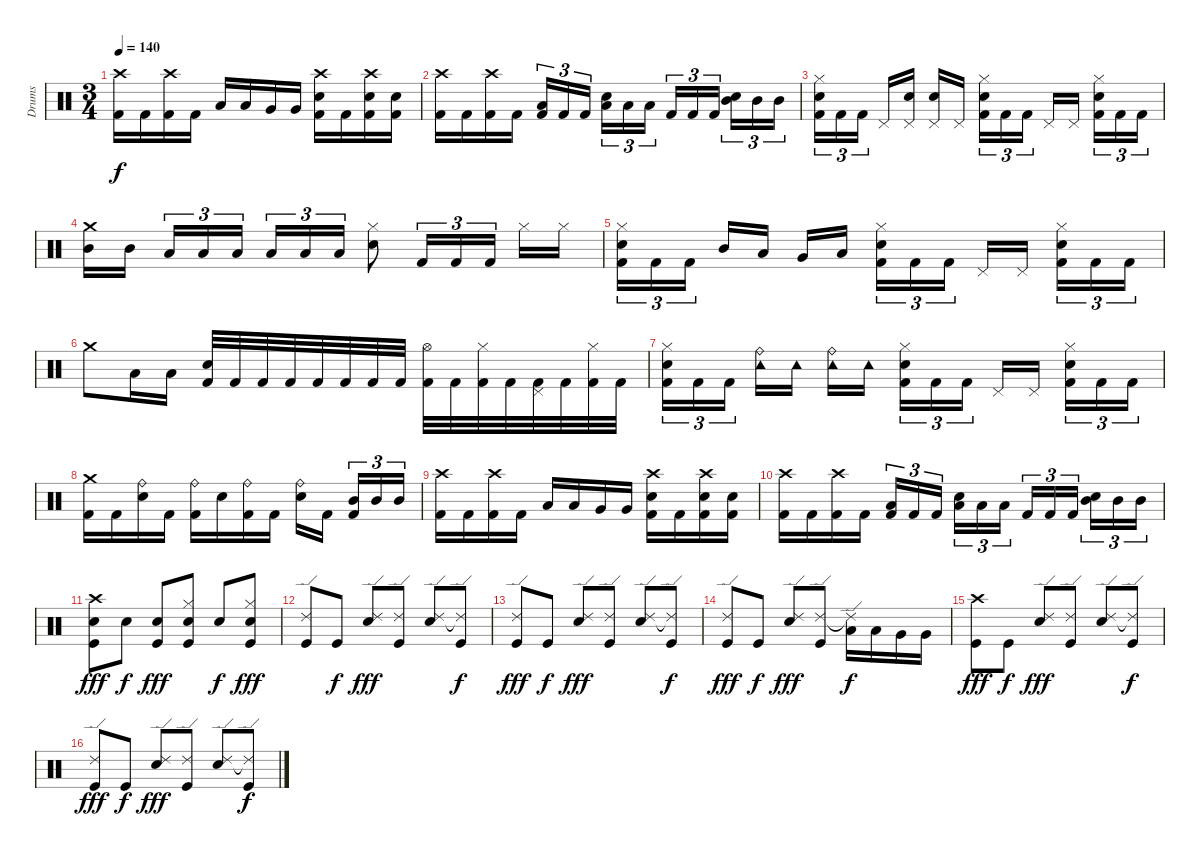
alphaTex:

\track ("Drums" "Drums") {instrument percussion}
\staff {score}
\articulation defaults
\ts (3 4)
\tempo 140
\clef neutral
\ks c
("Crash high (hit)" "Kick (hit) 2").16{dy f} "Kick (hit) 2".16 ("Crash high (hit)" "Kick (hit) 2").16 "Kick (hit) 2".16 "Low Tom (hit)".16 "Low Tom (hit)".16 "Very Low Tom (hit)".16 "Very Low Tom (hit)".16 ("Crash high (hit)" "Snare (hit) 2" "Kick (hit) 2").16 "Kick (hit) 2".16 ("Crash high (hit)" "Snare (hit) 2" "Kick (hit) 2").16 ("Snare (hit) 2" "Kick (hit) 2").16 |
("Crash high (hit)" "Kick (hit) 2").16 "Kick (hit) 2".16 ("Crash high (hit)" "Kick (hit) 2").16 "Kick (hit) 2".16 ("Low Tom (hit)" "Kick (hit) 2").16{tu (3 2)} "Kick (hit) 2".16{tu (3 2)} "Kick (hit) 2".16{tu (3 2)} ("Low Tom (hit)" "Snare (hit) 2").16{tu (3 2)} "Low Tom (hit)".16{tu (3 2)} "Low Tom (hit)".16{tu (3 2)} "Kick (hit) 2".16{tu (3 2)} "Kick (hit) 2".16{tu (3 2)} "Kick (hit) 2".16{tu (3 2)} ("Mid Tom (hit)" "Snare (hit) 2").16{tu (3 2)} "Mid Tom (hit)".16{tu (3 2)} "Mid Tom (hit)".16{tu (3 2)} |
("Hi-Hat (closed)" "Snare (hit) 2" "Kick (hit) 2").16{tu (3 2)} "Kick (hit) 2".16{tu (3 2)} "Kick (hit) 2".16{tu (3 2)} "Pedal Hi-Hat (hit)".16 ("Pedal Hi-Hat (hit)" "Snare (hit) 2").16 ("Pedal Hi-Hat (hit)" "Snare (hit) 2").16 "Pedal Hi-Hat (hit)".16 ("Hi-Hat (closed)" "Snare (hit) 2" "Kick (hit) 2").16{tu (3 2)} "Kick (hit) 2".16{tu (3 2)} "Kick (hit) 2".16{tu (3 2)} "Pedal Hi-Hat (hit)".16 "Pedal Hi-Hat (hit)".16 ("Hi-Hat (closed)" "Snare (hit) 2" "Kick (hit) 2").16{tu (3 2)} "Kick (hit) 2".16{tu (3 2)} "Kick (hit) 2".16{tu (3 2)} |
("Crash medium (hit)" "Mid Tom (hit)").16 "Mid Tom (hit)".16 "Low Tom (hit)".16{tu (3 2)} "Low Tom (hit)".16{tu (3 2)} "Low Tom (hit)".16{tu (3 2)} "Low Tom (hit)".16{tu (3 2)} "Low Tom (hit)".16{tu (3 2)} "Low Tom (hit)".16{tu (3 2)} ("Hi-Hat (closed)" "Snare (hit) 2").8 "Kick (hit) 2".16{tu (3 2)} "Kick (hit) 2".16{tu (3 2)} "Kick (hit) 2".16{tu (3 2)} "Hi-Hat (closed)".16 "Hi-Hat (closed)".16 |
("Hi-Hat (closed)" "Snare (hit) 2" "Kick (hit) 2").16{tu (3 2)} "Kick (hit) 2".16{tu (3 2)} "Kick (hit) 2".16{tu (3 2)} "Mid Tom (hit)".16 "Low Tom (hit)".16 "Very Low Tom (hit)".16 "Low Floor Tom (hit)".16 ("Hi-Hat (closed)" "Snare (hit) 2" "Kick (hit) 2").16{tu (3 2)} "Kick (hit) 2".16{tu (3 2)} "Kick (hit) 2".16{tu (3 2)} "Pedal Hi-Hat (hit)".16 "Pedal Hi-Hat (hit)".16 ("Hi-Hat (closed)" "Snare (hit) 2" "Kick (hit) 2").16{tu (3 2)} "Kick (hit) 2".16{tu (3 2)} "Kick (hit) 2".16{tu (3 2)} |
"Crash medium (hit)".8 "Low Tom (hit)".16 "Low Tom (hit)".16 ("Snare (hit) 2" "Kick (hit) 2").32 "Kick (hit) 2".32 "Kick (hit) 2".32 "Kick (hit) 2".32 "Kick (hit) 2".32 "Kick (hit) 2".32 "Kick (hit) 2".32 "Kick (hit) 2".32 ("Hi-Hat (open)" "Kick (hit) 2").32 "Kick (hit) 2".32 ("Hi-Hat (closed)" "Kick (hit) 2").32 "Kick (hit) 2".32 ("Pedal Hi-Hat (hit)" "Kick (hit) 2").32 "Kick (hit) 2".32 ("Hi-Hat (closed)" "Kick (hit) 2").32 "Kick (hit) 2".32 |
("Hi-Hat (closed)" "Snare (hit) 2" "Kick (hit) 2").16{tu (3 2)} "Kick (hit) 2".16{tu (3 2)} "Kick (hit) 2".16{tu (3 2)} ("Ride (bell)" "Tambourine (hit)").16 "Tambourine (hit)".16 ("Ride (bell)" "Tambourine (hit)").16 "Tambourine (hit)".16 ("Hi-Hat (closed)" "Snare (hit) 2" "Kick (hit) 2").16{tu (3 2)} "Kick (hit) 2".16{tu (3 2)} "Kick (hit) 2".16{tu (3 2)} "Pedal Hi-Hat (hit)".16 "Pedal Hi-Hat (hit)".16 ("Hi-Hat (closed)" "Snare (hit) 2" "Kick (hit) 2").16{tu (3 2)} "Kick (hit) 2".16{tu (3 2)} "Kick (hit) 2".16{tu (3 2)} |
("Crash medium (hit)" "Kick (hit) 2").16 "Kick (hit) 2".16 ("Ride (bell)" "Snare (hit) 2").16 "Kick (hit) 2".16 ("Ride (bell)" "Kick (hit) 2").16 "Snare (hit) 2".16 ("Ride (bell)" "Kick (hit) 2").16 "Kick (hit) 2".16 ("Ride (bell)" "Snare (hit) 2").16 "Kick (hit) 2".16 ("Mid Tom (hit)" "Kick (hit) 2").16{tu (3 2)} "Mid Tom (hit)".16{tu (3 2)} "Mid Tom (hit)".16{tu (3 2)} |
("Crash high (hit)" "Kick (hit) 2").16 "Kick (hit) 2".16 ("Crash high (hit)" "Kick (hit) 2").16 "Kick (hit) 2".16 "Low Tom (hit)".16 "Low Tom (hit)".16 "Very Low Tom (hit)".16 "Very Low Tom (hit)".16 ("Crash high (hit)" "Snare (hit) 2" "Kick (hit) 2").16 "Kick (hit) 2".16 ("Crash high (hit)" "Snare (hit) 2" "Kick (hit) 2").16 ("Snare (hit) 2" "Kick (hit) 2").16 |
("Crash high (hit)" "Kick (hit) 2").16 "Kick (hit) 2".16 ("Crash high (hit)" "Kick (hit) 2").16 "Kick (hit) 2".16 ("Low Tom (hit)" "Kick (hit) 2").16{tu (3 2)} "Kick (hit) 2".16{tu (3 2)} "Kick (hit) 2".16{tu (3 2)} ("Low Tom (hit)" "Snare (hit) 2").16{tu (3 2)} "Low Tom (hit)".16{tu (3 2)} "Low Tom (hit)".16{tu (3 2)} "Kick (hit) 2".16{tu (3 2)} "Kick (hit) 2".16{tu (3 2)} "Kick (hit) 2".16{tu (3 2)} ("Mid Tom (hit)" "Snare (hit) 2").16{tu (3 2)} "Mid Tom (hit)".16{tu (3 2)} "Mid Tom (hit)".16{tu (3 2)} |
("Crash high (hit)" "Snare (hit) 2" "Kick (hit)").8{dy fff} "Snare (hit) 2".8{dy f} ("Snare (hit) 2" "Kick (hit)").8{dy fff} ("Hi-Hat (closed)" "Snare (hit) 2" "Kick (hit)").8 "Snare (hit) 2".8{dy f} ("Hi-Hat (closed)" "Snare (hit) 2" "Kick (hit)").8{dy fff} |
("Ride (edge) 2" "Kick (hit)").8 "Kick (hit)".8{dy f} ("Ride (edge) 2" "Snare (hit) 2").8{dy fff} ("Ride (edge) 2" "Kick (hit)").8 ("Ride (edge) 2" "Snare (hit) 2").8 ("Ride (edge) 2"{t} "Kick (hit)").8{dy f} |
("Ride (edge) 2" "Kick (hit)").8{dy fff} "Kick (hit)".8{dy f} ("Ride (edge) 2" "Snare (hit) 2").8{dy fff} ("Ride (edge) 2" "Kick (hit)").8 ("Ride (edge) 2" "Snare (hit) 2").8 ("Ride (edge) 2"{t} "Kick (hit)").8{dy f} |
("Ride (edge) 2" "Kick (hit)").8{dy fff} "Kick (hit)".8{dy f} ("Ride (edge) 2" "Snare (hit) 2").8{dy fff} ("Ride (edge) 2" "Kick (hit)").8 ("Ride (edge) 2"{t} "Low Tom (hit)").16{dy f} "Low Tom (hit)".16 "Very Low Tom (hit)".16 "Very Low Tom (hit)".16 |
("Crash high (hit)" "Kick (hit)").8{dy fff} "Kick (hit)".8{dy f} ("Ride (edge) 2" "Snare (hit) 2").8{dy fff} ("Ride (edge) 2" "Kick (hit)").8 ("Ride (edge) 2" "Snare (hit) 2").8 ("Ride (edge) 2"{t} "Kick (hit)").8{dy f} |
("Ride (edge) 2" "Kick (hit)").8{dy fff} "Kick (hit)".8{dy f} ("Ride (edge) 2" "Snare (hit) 2").8{dy fff} ("Ride (edge) 2" "Kick (hit)").8 ("Ride (edge) 2" "Snare (hit) 2").8 ("Ride (edge) 2"{t} "Kick (hit)").8{dy f}
